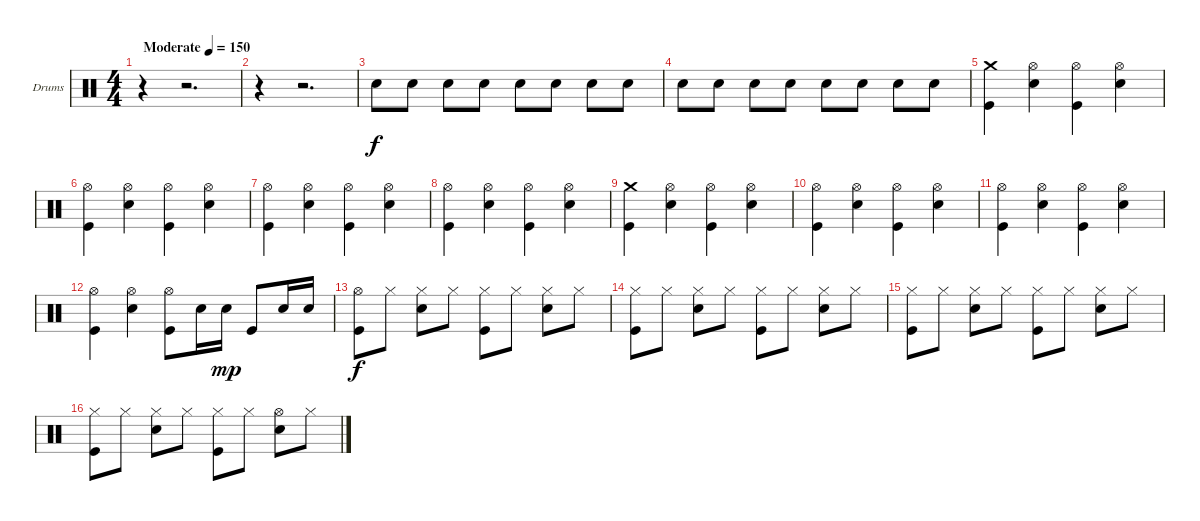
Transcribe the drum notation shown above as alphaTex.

\bracketExtendMode groupsimilarinstruments
\firstSystemTrackNameOrientation horizontal
\otherSystemsTrackNameOrientation horizontal
\track ("Drumkit" "Drums") {instrument percussion}
\staff {score}
\articulation defaults
\ts (4 4)
\beaming (8 2 2 2 2)
\tempo (150 "Moderate")
\clef neutral
\ks c
r.4{dy f} r.2{d} |
r.4 r.2{d} |
"Snare (hit) 2".8 "Snare (hit) 2".8 "Snare (hit) 2".8 "Snare (hit) 2".8 "Snare (hit) 2".8 "Snare (hit) 2".8 "Snare (hit) 2".8 "Snare (hit) 2".8 |
"Snare (hit) 2".8 "Snare (hit) 2".8 "Snare (hit) 2".8 "Snare (hit) 2".8 "Snare (hit) 2".8 "Snare (hit) 2".8 "Snare (hit) 2".8 "Snare (hit) 2".8 |
("Crash medium (hit)" "Kick (hit)").4 ("Hi-Hat (open)" "Snare (hit) 2").4 ("Hi-Hat (open)" "Kick (hit)").4 ("Hi-Hat (open)" "Snare (hit) 2").4 |
("Hi-Hat (open)" "Kick (hit)").4 ("Hi-Hat (open)" "Snare (hit) 2").4 ("Hi-Hat (open)" "Kick (hit)").4 ("Hi-Hat (open)" "Snare (hit) 2").4 |
("Hi-Hat (open)" "Kick (hit)").4 ("Hi-Hat (open)" "Snare (hit) 2").4 ("Hi-Hat (open)" "Kick (hit)").4 ("Hi-Hat (open)" "Snare (hit) 2").4 |
("Hi-Hat (open)" "Kick (hit)").4 ("Hi-Hat (open)" "Snare (hit) 2").4 ("Hi-Hat (open)" "Kick (hit)").4 ("Hi-Hat (open)" "Snare (hit) 2").4 |
("Crash medium (hit)" "Kick (hit)").4 ("Hi-Hat (open)" "Snare (hit) 2").4 ("Hi-Hat (open)" "Kick (hit)").4 ("Hi-Hat (open)" "Snare (hit) 2").4 |
("Hi-Hat (open)" "Kick (hit)").4 ("Hi-Hat (open)" "Snare (hit) 2").4 ("Hi-Hat (open)" "Kick (hit)").4 ("Hi-Hat (open)" "Snare (hit) 2").4 |
("Hi-Hat (open)" "Kick (hit)").4 ("Hi-Hat (open)" "Snare (hit) 2").4 ("Hi-Hat (open)" "Kick (hit)").4 ("Hi-Hat (open)" "Snare (hit) 2").4 |
("Hi-Hat (open)" "Kick (hit)").4 ("Hi-Hat (open)" "Snare (hit) 2").4 ("Hi-Hat (open)" "Kick (hit)").8 "Snare (hit) 2".16 "Snare (hit) 2".16{dy mp} "Kick (hit)".8 "Snare (hit) 2".16 "Snare (hit) 2".16 |
("Hi-Hat (open)" "Kick (hit)").8{dy f} "Hi-Hat (closed)".8 ("Hi-Hat (closed)" "Snare (hit) 2").8 "Hi-Hat (closed)".8 ("Hi-Hat (closed)" "Kick (hit)").8 "Hi-Hat (closed)".8 ("Hi-Hat (closed)" "Snare (hit) 2").8 "Hi-Hat (closed)".8 |
("Hi-Hat (closed)" "Kick (hit)").8 "Hi-Hat (closed)".8 ("Hi-Hat (closed)" "Snare (hit) 2").8 "Hi-Hat (closed)".8 ("Hi-Hat (closed)" "Kick (hit)").8 "Hi-Hat (closed)".8 ("Hi-Hat (closed)" "Snare (hit) 2").8 "Hi-Hat (closed)".8 |
("Hi-Hat (closed)" "Kick (hit)").8 "Hi-Hat (closed)".8 ("Hi-Hat (closed)" "Snare (hit) 2").8 "Hi-Hat (closed)".8 ("Hi-Hat (closed)" "Kick (hit)").8 "Hi-Hat (closed)".8 ("Hi-Hat (closed)" "Snare (hit) 2").8 "Hi-Hat (closed)".8 |
("Hi-Hat (closed)" "Kick (hit)").8 "Hi-Hat (closed)".8 ("Hi-Hat (closed)" "Snare (hit) 2").8 "Hi-Hat (closed)".8 ("Hi-Hat (closed)" "Kick (hit)").8 "Hi-Hat (closed)".8 ("Hi-Hat (open)" "Snare (hit) 2").8 "Hi-Hat (closed)".8
